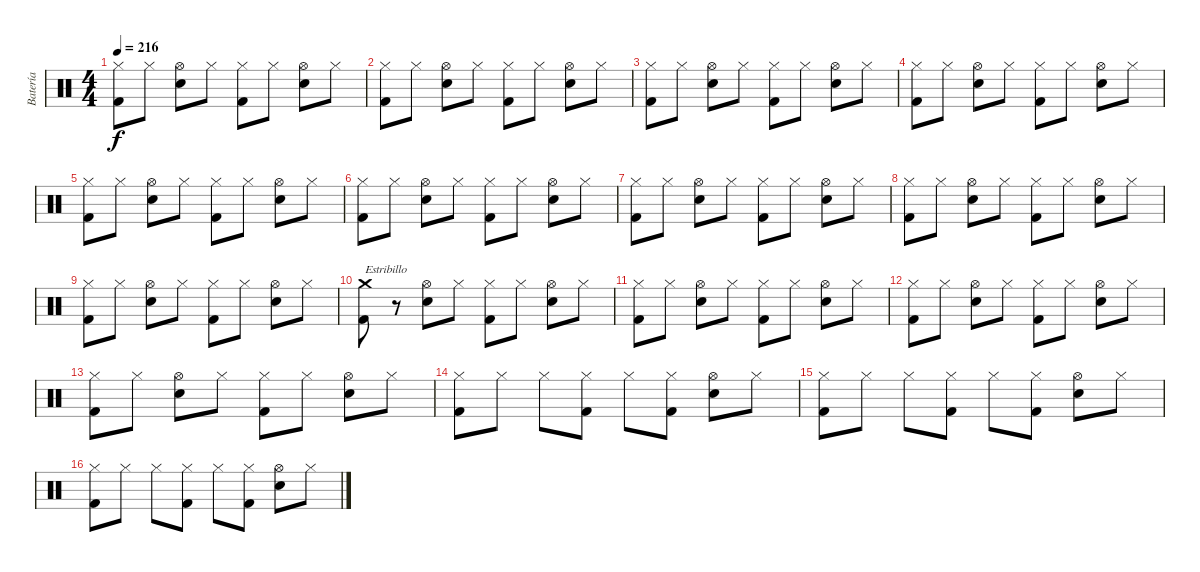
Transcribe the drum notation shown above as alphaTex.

\track ("Batería" "Batería") {instrument percussion}
\staff {score}
\articulation defaults
\ts (4 4)
\tempo 216
\clef neutral
\ks c
("Kick (hit) 2" "Hi-Hat (closed)").8{dy f} "Hi-Hat (closed)".8 ("Electric Snare (hit)" "Hi-Hat (open)").8 "Hi-Hat (closed)".8 ("Kick (hit) 2" "Hi-Hat (closed)").8 "Hi-Hat (closed)".8 ("Electric Snare (hit)" "Hi-Hat (open)").8 "Hi-Hat (closed)".8 |
("Kick (hit) 2" "Hi-Hat (closed)").8 "Hi-Hat (closed)".8 ("Electric Snare (hit)" "Hi-Hat (open)").8 "Hi-Hat (closed)".8 ("Kick (hit) 2" "Hi-Hat (closed)").8 "Hi-Hat (closed)".8 ("Electric Snare (hit)" "Hi-Hat (open)").8 "Hi-Hat (closed)".8 |
("Kick (hit) 2" "Hi-Hat (closed)").8 "Hi-Hat (closed)".8 ("Electric Snare (hit)" "Hi-Hat (open)").8 "Hi-Hat (closed)".8 ("Kick (hit) 2" "Hi-Hat (closed)").8 "Hi-Hat (closed)".8 ("Electric Snare (hit)" "Hi-Hat (open)").8 "Hi-Hat (closed)".8 |
("Kick (hit) 2" "Hi-Hat (closed)").8 "Hi-Hat (closed)".8 ("Electric Snare (hit)" "Hi-Hat (open)").8 "Hi-Hat (closed)".8 ("Kick (hit) 2" "Hi-Hat (closed)").8 "Hi-Hat (closed)".8 ("Electric Snare (hit)" "Hi-Hat (open)").8 "Hi-Hat (closed)".8 |
("Kick (hit) 2" "Hi-Hat (closed)").8 "Hi-Hat (closed)".8 ("Electric Snare (hit)" "Hi-Hat (open)").8 "Hi-Hat (closed)".8 ("Kick (hit) 2" "Hi-Hat (closed)").8 "Hi-Hat (closed)".8 ("Electric Snare (hit)" "Hi-Hat (open)").8 "Hi-Hat (closed)".8 |
("Kick (hit) 2" "Hi-Hat (closed)").8 "Hi-Hat (closed)".8 ("Electric Snare (hit)" "Hi-Hat (open)").8 "Hi-Hat (closed)".8 ("Kick (hit) 2" "Hi-Hat (closed)").8 "Hi-Hat (closed)".8 ("Electric Snare (hit)" "Hi-Hat (open)").8 "Hi-Hat (closed)".8 |
("Kick (hit) 2" "Hi-Hat (closed)").8 "Hi-Hat (closed)".8 ("Electric Snare (hit)" "Hi-Hat (open)").8 "Hi-Hat (closed)".8 ("Kick (hit) 2" "Hi-Hat (closed)").8 "Hi-Hat (closed)".8 ("Electric Snare (hit)" "Hi-Hat (open)").8 "Hi-Hat (closed)".8 |
("Kick (hit) 2" "Hi-Hat (closed)").8 "Hi-Hat (closed)".8 ("Electric Snare (hit)" "Hi-Hat (open)").8 "Hi-Hat (closed)".8 ("Kick (hit) 2" "Hi-Hat (closed)").8 "Hi-Hat (closed)".8 ("Electric Snare (hit)" "Hi-Hat (open)").8 "Hi-Hat (closed)".8 |
("Kick (hit) 2" "Hi-Hat (closed)").8 "Hi-Hat (closed)".8 ("Electric Snare (hit)" "Hi-Hat (open)").8 "Hi-Hat (closed)".8 ("Kick (hit) 2" "Hi-Hat (closed)").8 "Hi-Hat (closed)".8 ("Electric Snare (hit)" "Hi-Hat (open)").8 "Hi-Hat (closed)".8 |
("Kick (hit) 2" "Crash medium (hit)").8{txt "Estribillo"} r.8 ("Electric Snare (hit)" "Hi-Hat (open)").8 "Hi-Hat (closed)".8 ("Kick (hit) 2" "Hi-Hat (closed)").8 "Hi-Hat (closed)".8 ("Electric Snare (hit)" "Hi-Hat (open)").8 "Hi-Hat (closed)".8 |
("Kick (hit) 2" "Hi-Hat (closed)").8 "Hi-Hat (closed)".8 ("Electric Snare (hit)" "Hi-Hat (open)").8 "Hi-Hat (closed)".8 ("Kick (hit) 2" "Hi-Hat (closed)").8 "Hi-Hat (closed)".8 ("Electric Snare (hit)" "Hi-Hat (open)").8 "Hi-Hat (closed)".8 |
("Kick (hit) 2" "Hi-Hat (closed)").8 "Hi-Hat (closed)".8 ("Electric Snare (hit)" "Hi-Hat (open)").8 "Hi-Hat (closed)".8 ("Kick (hit) 2" "Hi-Hat (closed)").8 "Hi-Hat (closed)".8 ("Electric Snare (hit)" "Hi-Hat (open)").8 "Hi-Hat (closed)".8 |
("Kick (hit) 2" "Hi-Hat (closed)").8 "Hi-Hat (closed)".8 ("Electric Snare (hit)" "Hi-Hat (open)").8 "Hi-Hat (closed)".8 ("Kick (hit) 2" "Hi-Hat (closed)").8 "Hi-Hat (closed)".8 ("Electric Snare (hit)" "Hi-Hat (open)").8 "Hi-Hat (closed)".8 |
("Kick (hit) 2" "Hi-Hat (closed)").8 "Hi-Hat (closed)".8 "Hi-Hat (closed)".8 ("Kick (hit) 2" "Hi-Hat (closed)").8 "Hi-Hat (closed)".8 ("Kick (hit) 2" "Hi-Hat (closed)").8 ("Electric Snare (hit)" "Hi-Hat (open)").8 "Hi-Hat (closed)".8 |
("Kick (hit) 2" "Hi-Hat (closed)").8 "Hi-Hat (closed)".8 "Hi-Hat (closed)".8 ("Kick (hit) 2" "Hi-Hat (closed)").8 "Hi-Hat (closed)".8 ("Kick (hit) 2" "Hi-Hat (closed)").8 ("Electric Snare (hit)" "Hi-Hat (open)").8 "Hi-Hat (closed)".8 |
("Kick (hit) 2" "Hi-Hat (closed)").8 "Hi-Hat (closed)".8 "Hi-Hat (closed)".8 ("Kick (hit) 2" "Hi-Hat (closed)").8 "Hi-Hat (closed)".8 ("Kick (hit) 2" "Hi-Hat (closed)").8 ("Electric Snare (hit)" "Hi-Hat (open)").8 "Hi-Hat (closed)".8
